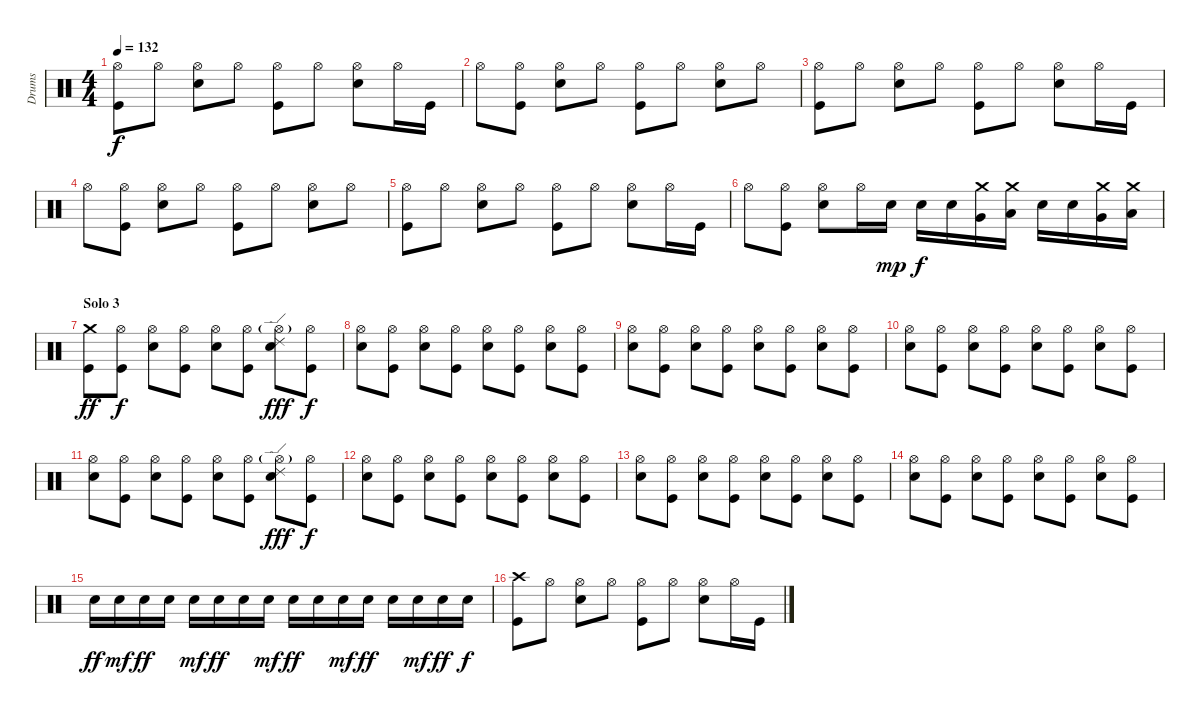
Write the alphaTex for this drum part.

\track ("Drums" "Drums") {instrument percussion}
\staff {score}
\articulation defaults
\ts (4 4)
\tempo 132
\clef neutral
\ks c
("Hi-Hat (open)" "Kick (hit)").8{dy f} "Hi-Hat (open)".8 ("Hi-Hat (open)" "Snare (hit) 2").8 "Hi-Hat (open)".8 ("Hi-Hat (open)" "Kick (hit)").8 "Hi-Hat (open)".8 ("Hi-Hat (open)" "Snare (hit) 2").8 "Hi-Hat (open)".16 "Kick (hit)".16 |
"Hi-Hat (open)".8 ("Hi-Hat (open)" "Kick (hit)").8 ("Hi-Hat (open)" "Snare (hit) 2").8 "Hi-Hat (open)".8 ("Hi-Hat (open)" "Kick (hit)").8 "Hi-Hat (open)".8 ("Hi-Hat (open)" "Snare (hit) 2").8 "Hi-Hat (open)".8 |
("Hi-Hat (open)" "Kick (hit)").8 "Hi-Hat (open)".8 ("Hi-Hat (open)" "Snare (hit) 2").8 "Hi-Hat (open)".8 ("Hi-Hat (open)" "Kick (hit)").8 "Hi-Hat (open)".8 ("Hi-Hat (open)" "Snare (hit) 2").8 "Hi-Hat (open)".16 "Kick (hit)".16 |
"Hi-Hat (open)".8 ("Hi-Hat (open)" "Kick (hit)").8 ("Hi-Hat (open)" "Snare (hit) 2").8 "Hi-Hat (open)".8 ("Hi-Hat (open)" "Kick (hit)").8 "Hi-Hat (open)".8 ("Hi-Hat (open)" "Snare (hit) 2").8 "Hi-Hat (open)".8 |
("Hi-Hat (open)" "Kick (hit)").8 "Hi-Hat (open)".8 ("Hi-Hat (open)" "Snare (hit) 2").8 "Hi-Hat (open)".8 ("Hi-Hat (open)" "Kick (hit)").8 "Hi-Hat (open)".8 ("Hi-Hat (open)" "Snare (hit) 2").8 "Hi-Hat (open)".16 "Kick (hit)".16 |
"Hi-Hat (open)".8 ("Hi-Hat (open)" "Kick (hit)").8 ("Hi-Hat (open)" "Snare (hit) 2").8 "Hi-Hat (open)".16 "Snare (hit) 2".16{dy mp} "Snare (hit) 2".16{dy f} "Snare (hit) 2".16 ("Crash medium (hit)" "Very Low Tom (hit)").16 ("Crash medium (hit)" "Low Floor Tom (hit)").16 "Snare (hit) 2".16 "Snare (hit) 2".16 ("Crash medium (hit)" "Very Low Tom (hit)").16 ("Crash medium (hit)" "Low Floor Tom (hit)").16 |
\section ("" "Solo 3")
("Crash medium (hit)" "Kick (hit)").8{dy ff} ("Hi-Hat (open)" "Kick (hit)").8{dy f} ("Hi-Hat (open)" "Snare (hit) 2").8 ("Hi-Hat (open)" "Kick (hit)").8 ("Hi-Hat (open)" "Snare (hit) 2").8 ("Hi-Hat (open)" "Kick (hit)").8 ("Hi-Hat (open)"{g} "Ride (edge) 2" "Snare (hit) 2").8{dy fff} ("Hi-Hat (open)" "Kick (hit)").8{dy f} |
("Hi-Hat (open)" "Snare (hit) 2").8 ("Hi-Hat (open)" "Kick (hit)").8 ("Hi-Hat (open)" "Snare (hit) 2").8 ("Hi-Hat (open)" "Kick (hit)").8 ("Hi-Hat (open)" "Snare (hit) 2").8 ("Hi-Hat (open)" "Kick (hit)").8 ("Hi-Hat (open)" "Snare (hit) 2").8 ("Hi-Hat (open)" "Kick (hit)").8 |
("Hi-Hat (open)" "Snare (hit) 2").8 ("Hi-Hat (open)" "Kick (hit)").8 ("Hi-Hat (open)" "Snare (hit) 2").8 ("Hi-Hat (open)" "Kick (hit)").8 ("Hi-Hat (open)" "Snare (hit) 2").8 ("Hi-Hat (open)" "Kick (hit)").8 ("Hi-Hat (open)" "Snare (hit) 2").8 ("Hi-Hat (open)" "Kick (hit)").8 |
("Hi-Hat (open)" "Snare (hit) 2").8 ("Hi-Hat (open)" "Kick (hit)").8 ("Hi-Hat (open)" "Snare (hit) 2").8 ("Hi-Hat (open)" "Kick (hit)").8 ("Hi-Hat (open)" "Snare (hit) 2").8 ("Hi-Hat (open)" "Kick (hit)").8 ("Hi-Hat (open)" "Snare (hit) 2").8 ("Hi-Hat (open)" "Kick (hit)").8 |
("Hi-Hat (open)" "Snare (hit) 2").8 ("Hi-Hat (open)" "Kick (hit)").8 ("Hi-Hat (open)" "Snare (hit) 2").8 ("Hi-Hat (open)" "Kick (hit)").8 ("Hi-Hat (open)" "Snare (hit) 2").8 ("Hi-Hat (open)" "Kick (hit)").8 ("Hi-Hat (open)"{g} "Ride (edge) 2" "Snare (hit) 2").8{dy fff} ("Hi-Hat (open)" "Kick (hit)").8{dy f} |
("Hi-Hat (open)" "Snare (hit) 2").8 ("Hi-Hat (open)" "Kick (hit)").8 ("Hi-Hat (open)" "Snare (hit) 2").8 ("Hi-Hat (open)" "Kick (hit)").8 ("Hi-Hat (open)" "Snare (hit) 2").8 ("Hi-Hat (open)" "Kick (hit)").8 ("Hi-Hat (open)" "Snare (hit) 2").8 ("Hi-Hat (open)" "Kick (hit)").8 |
("Hi-Hat (open)" "Snare (hit) 2").8 ("Hi-Hat (open)" "Kick (hit)").8 ("Hi-Hat (open)" "Snare (hit) 2").8 ("Hi-Hat (open)" "Kick (hit)").8 ("Hi-Hat (open)" "Snare (hit) 2").8 ("Hi-Hat (open)" "Kick (hit)").8 ("Hi-Hat (open)" "Snare (hit) 2").8 ("Hi-Hat (open)" "Kick (hit)").8 |
("Hi-Hat (open)" "Snare (hit) 2").8 ("Hi-Hat (open)" "Kick (hit)").8 ("Hi-Hat (open)" "Snare (hit) 2").8 ("Hi-Hat (open)" "Kick (hit)").8 ("Hi-Hat (open)" "Snare (hit) 2").8 ("Hi-Hat (open)" "Kick (hit)").8 ("Hi-Hat (open)" "Snare (hit) 2").8 ("Hi-Hat (open)" "Kick (hit)").8 |
"Snare (hit) 2".16{dy ff} "Snare (hit) 2".16{dy mf} "Snare (hit) 2".16{dy ff} "Snare (hit) 2".16 "Snare (hit) 2".16{dy mf} "Snare (hit) 2".16{dy ff} "Snare (hit) 2".16 "Snare (hit) 2".16{dy mf} "Snare (hit) 2".16{dy ff} "Snare (hit) 2".16 "Snare (hit) 2".16{dy mf} "Snare (hit) 2".16{dy ff} "Snare (hit) 2".16 "Snare (hit) 2".16{dy mf} "Snare (hit) 2".16{dy ff} "Snare (hit) 2".16{dy f} |
("Crash high (hit)" "Kick (hit)").8 "Hi-Hat (open)".8 ("Hi-Hat (open)" "Snare (hit) 2").8 "Hi-Hat (open)".8 ("Hi-Hat (open)" "Kick (hit)").8 "Hi-Hat (open)".8 ("Hi-Hat (open)" "Snare (hit) 2").8 "Hi-Hat (open)".16 "Kick (hit)".16
